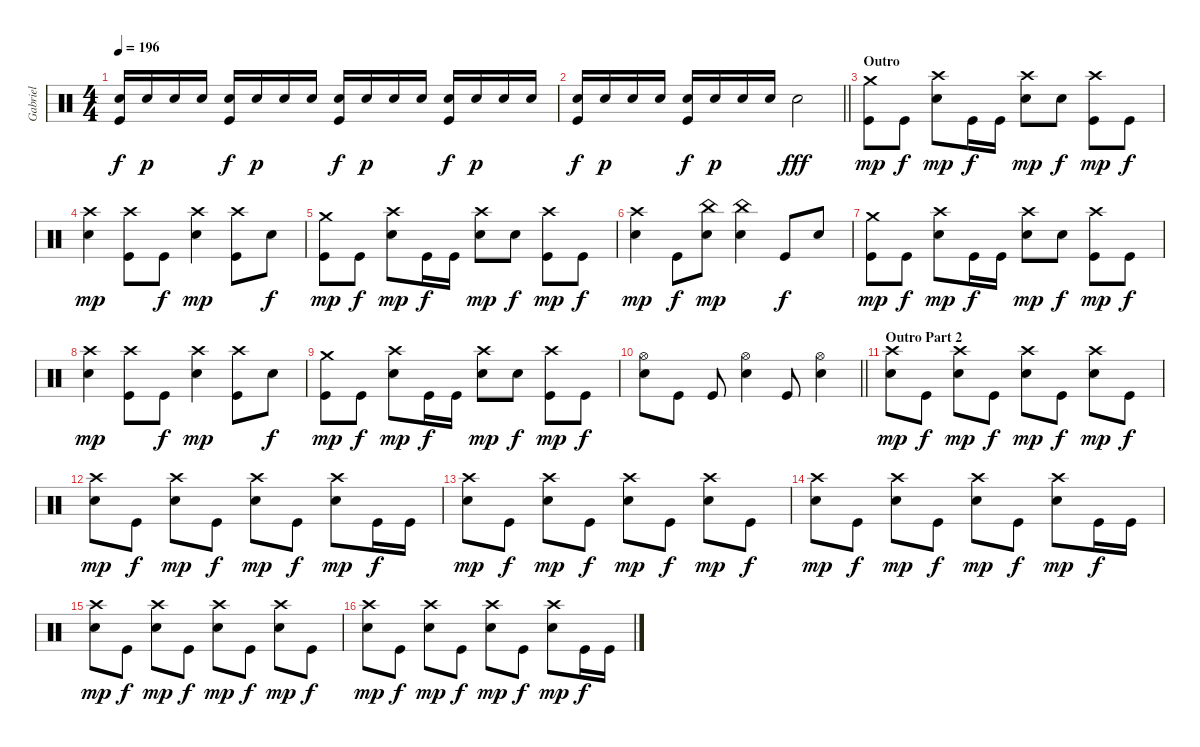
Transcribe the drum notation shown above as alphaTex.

\track ("Gabriel" "Gabriel") {instrument percussion}
\staff {score}
\articulation defaults
\ts (4 4)
\tempo 196
\clef neutral
\ks aminor
("Snare (hit) 2" "Kick (hit)").16{dy f} "Snare (hit) 2".16{dy p} "Snare (hit) 2".16 "Snare (hit) 2".16 ("Snare (hit) 2" "Kick (hit)").16{dy f} "Snare (hit) 2".16{dy p} "Snare (hit) 2".16 "Snare (hit) 2".16 ("Snare (hit) 2" "Kick (hit)").16{dy f} "Snare (hit) 2".16{dy p} "Snare (hit) 2".16 "Snare (hit) 2".16 ("Snare (hit) 2" "Kick (hit)").16{dy f} "Snare (hit) 2".16{dy p} "Snare (hit) 2".16 "Snare (hit) 2".16 |
\barLineRight lightlight
("Snare (hit) 2" "Kick (hit)").16{dy f} "Snare (hit) 2".16{dy p} "Snare (hit) 2".16 "Snare (hit) 2".16 ("Snare (hit) 2" "Kick (hit)").16{dy f} "Snare (hit) 2".16{dy p} "Snare (hit) 2".16 "Snare (hit) 2".16 "Snare (hit) 2".2{dy fff} |
\section ("" "Outro")
("Crash medium (hit)" "Kick (hit)").8{dy mp} "Kick (hit)".8{dy f} ("Crash high (hit)" "Snare (hit) 2").8{dy mp} "Kick (hit)".16{dy f} "Kick (hit)".16 ("Crash high (hit)" "Snare (hit) 2").8{dy mp} "Snare (hit) 2".8{dy f} ("Crash high (hit)" "Kick (hit)").8{dy mp} "Kick (hit)".8{dy f} |
("Crash high (hit)" "Snare (hit) 2").4{dy mp} ("Crash high (hit)" "Kick (hit)").8 "Kick (hit)".8{dy f} ("Crash high (hit)" "Snare (hit) 2").4{dy mp} ("Crash high (hit)" "Kick (hit)").8 "Snare (hit) 2".8{dy f} |
("Crash medium (hit)" "Kick (hit)").8{dy mp} "Kick (hit)".8{dy f} ("Crash high (hit)" "Snare (hit) 2").8{dy mp} "Kick (hit)".16{dy f} "Kick (hit)".16 ("Crash high (hit)" "Snare (hit) 2").8{dy mp} "Snare (hit) 2".8{dy f} ("Crash high (hit)" "Kick (hit)").8{dy mp} "Kick (hit)".8{dy f} |
("Crash high (hit)" "Snare (hit) 2").4{dy mp} "Kick (hit)".8{dy f} ("China (hit)" "Snare (hit) 2").8{dy mp} ("China (hit)" "Snare (hit) 2").4 "Kick (hit)".8{dy f} "Snare (hit) 2".8 |
("Crash medium (hit)" "Kick (hit)").8{dy mp} "Kick (hit)".8{dy f} ("Crash high (hit)" "Snare (hit) 2").8{dy mp} "Kick (hit)".16{dy f} "Kick (hit)".16 ("Crash high (hit)" "Snare (hit) 2").8{dy mp} "Snare (hit) 2".8{dy f} ("Crash high (hit)" "Kick (hit)").8{dy mp} "Kick (hit)".8{dy f} |
("Crash high (hit)" "Snare (hit) 2").4{dy mp} ("Crash high (hit)" "Kick (hit)").8 "Kick (hit)".8{dy f} ("Crash high (hit)" "Snare (hit) 2").4{dy mp} ("Crash high (hit)" "Kick (hit)").8 "Snare (hit) 2".8{dy f} |
("Crash medium (hit)" "Kick (hit)").8{dy mp} "Kick (hit)".8{dy f} ("Crash high (hit)" "Snare (hit) 2").8{dy mp} "Kick (hit)".16{dy f} "Kick (hit)".16 ("Crash high (hit)" "Snare (hit) 2").8{dy mp} "Snare (hit) 2".8{dy f} ("Crash high (hit)" "Kick (hit)").8{dy mp} "Kick (hit)".8{dy f} |
\barLineRight lightlight
("Hi-Hat (open)" "Snare (hit) 2").8 "Kick (hit)".8 "Kick (hit)".8 ("Hi-Hat (open)" "Snare (hit) 2").4 "Kick (hit)".8 ("Hi-Hat (open)" "Snare (hit) 2").4 |
\section ("" "Outro Part 2")
("Crash high (hit)" "Snare (hit) 2").8{dy mp} "Kick (hit)".8{dy f} ("Crash high (hit)" "Snare (hit) 2").8{dy mp} "Kick (hit)".8{dy f} ("Crash high (hit)" "Snare (hit) 2").8{dy mp} "Kick (hit)".8{dy f} ("Crash high (hit)" "Snare (hit) 2").8{dy mp} "Kick (hit)".8{dy f} |
("Crash high (hit)" "Snare (hit) 2").8{dy mp} "Kick (hit)".8{dy f} ("Crash high (hit)" "Snare (hit) 2").8{dy mp} "Kick (hit)".8{dy f} ("Crash high (hit)" "Snare (hit) 2").8{dy mp} "Kick (hit)".8{dy f} ("Crash high (hit)" "Snare (hit) 2").8{dy mp} "Kick (hit)".16{dy f} "Kick (hit)".16 |
("Crash high (hit)" "Snare (hit) 2").8{dy mp} "Kick (hit)".8{dy f} ("Crash high (hit)" "Snare (hit) 2").8{dy mp} "Kick (hit)".8{dy f} ("Crash high (hit)" "Snare (hit) 2").8{dy mp} "Kick (hit)".8{dy f} ("Crash high (hit)" "Snare (hit) 2").8{dy mp} "Kick (hit)".8{dy f} |
("Crash high (hit)" "Snare (hit) 2").8{dy mp} "Kick (hit)".8{dy f} ("Crash high (hit)" "Snare (hit) 2").8{dy mp} "Kick (hit)".8{dy f} ("Crash high (hit)" "Snare (hit) 2").8{dy mp} "Kick (hit)".8{dy f} ("Crash high (hit)" "Snare (hit) 2").8{dy mp} "Kick (hit)".16{dy f} "Kick (hit)".16 |
("Crash high (hit)" "Snare (hit) 2").8{dy mp} "Kick (hit)".8{dy f} ("Crash high (hit)" "Snare (hit) 2").8{dy mp} "Kick (hit)".8{dy f} ("Crash high (hit)" "Snare (hit) 2").8{dy mp} "Kick (hit)".8{dy f} ("Crash high (hit)" "Snare (hit) 2").8{dy mp} "Kick (hit)".8{dy f} |
("Crash high (hit)" "Snare (hit) 2").8{dy mp} "Kick (hit)".8{dy f} ("Crash high (hit)" "Snare (hit) 2").8{dy mp} "Kick (hit)".8{dy f} ("Crash high (hit)" "Snare (hit) 2").8{dy mp} "Kick (hit)".8{dy f} ("Crash high (hit)" "Snare (hit) 2").8{dy mp} "Kick (hit)".16{dy f} "Kick (hit)".16
